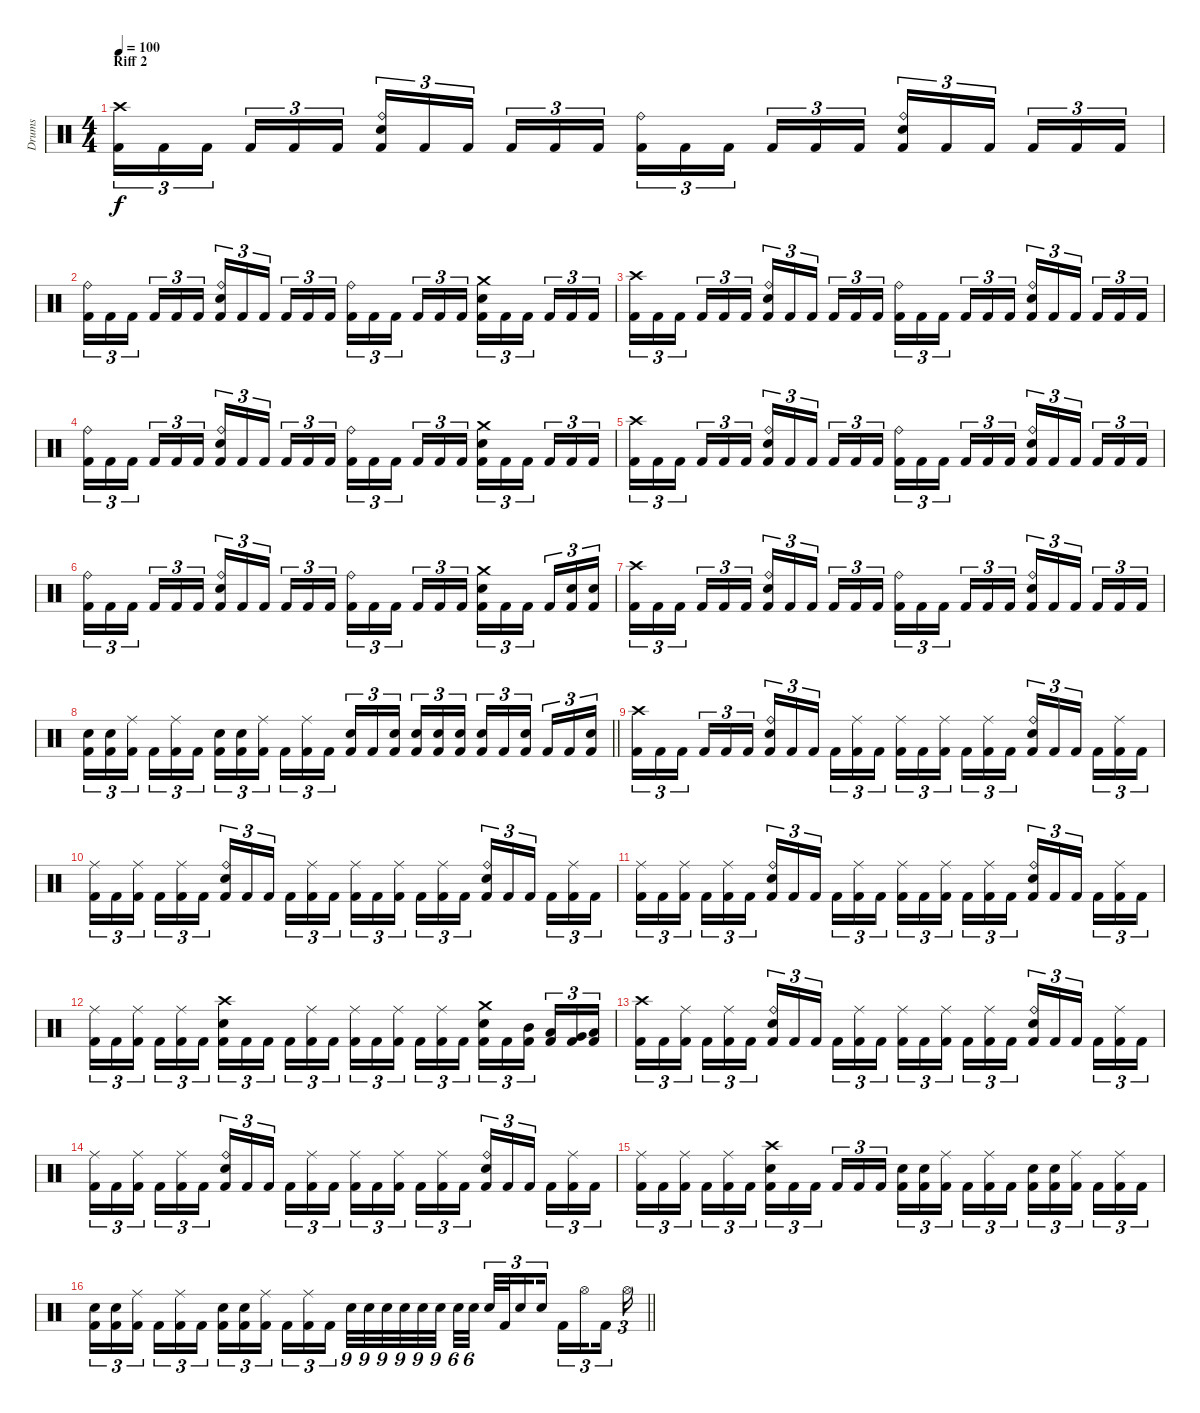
\track ("Drums" "Drums") {instrument percussion}
\staff {score}
\articulation defaults
\ts (4 4)
\section ("" "Riff 2")
\tempo 100
\clef neutral
\ks c
("Crash high (hit)" "Kick (hit) 2").16{tu (3 2) dy f} "Kick (hit) 2".16{tu (3 2)} "Kick (hit) 2".16{tu (3 2) beam splitsecondary} "Kick (hit) 2".16{tu (3 2)} "Kick (hit) 2".16{tu (3 2)} "Kick (hit) 2".16{tu (3 2)} ("Ride (bell)" "Electric Snare (hit)" "Kick (hit) 2").16{tu (3 2)} "Kick (hit) 2".16{tu (3 2)} "Kick (hit) 2".16{tu (3 2) beam splitsecondary} "Kick (hit) 2".16{tu (3 2)} "Kick (hit) 2".16{tu (3 2)} "Kick (hit) 2".16{tu (3 2)} ("Ride (bell)" "Kick (hit) 2").16{tu (3 2)} "Kick (hit) 2".16{tu (3 2)} "Kick (hit) 2".16{tu (3 2) beam splitsecondary} "Kick (hit) 2".16{tu (3 2)} "Kick (hit) 2".16{tu (3 2)} "Kick (hit) 2".16{tu (3 2)} ("Ride (bell)" "Electric Snare (hit)" "Kick (hit) 2").16{tu (3 2)} "Kick (hit) 2".16{tu (3 2)} "Kick (hit) 2".16{tu (3 2) beam splitsecondary} "Kick (hit) 2".16{tu (3 2)} "Kick (hit) 2".16{tu (3 2)} "Kick (hit) 2".16{tu (3 2)} |
("Ride (bell)" "Kick (hit) 2").16{tu (3 2)} "Kick (hit) 2".16{tu (3 2)} "Kick (hit) 2".16{tu (3 2) beam splitsecondary} "Kick (hit) 2".16{tu (3 2)} "Kick (hit) 2".16{tu (3 2)} "Kick (hit) 2".16{tu (3 2)} ("Ride (bell)" "Electric Snare (hit)" "Kick (hit) 2").16{tu (3 2)} "Kick (hit) 2".16{tu (3 2)} "Kick (hit) 2".16{tu (3 2) beam splitsecondary} "Kick (hit) 2".16{tu (3 2)} "Kick (hit) 2".16{tu (3 2)} "Kick (hit) 2".16{tu (3 2)} ("Ride (bell)" "Kick (hit) 2").16{tu (3 2)} "Kick (hit) 2".16{tu (3 2)} "Kick (hit) 2".16{tu (3 2) beam splitsecondary} "Kick (hit) 2".16{tu (3 2)} "Kick (hit) 2".16{tu (3 2)} "Kick (hit) 2".16{tu (3 2)} ("Crash medium (hit)" "Electric Snare (hit)" "Kick (hit) 2").16{tu (3 2)} "Kick (hit) 2".16{tu (3 2)} "Kick (hit) 2".16{tu (3 2) beam splitsecondary} "Kick (hit) 2".16{tu (3 2)} "Kick (hit) 2".16{tu (3 2)} "Kick (hit) 2".16{tu (3 2)} |
("Crash high (hit)" "Kick (hit) 2").16{tu (3 2)} "Kick (hit) 2".16{tu (3 2)} "Kick (hit) 2".16{tu (3 2) beam splitsecondary} "Kick (hit) 2".16{tu (3 2)} "Kick (hit) 2".16{tu (3 2)} "Kick (hit) 2".16{tu (3 2)} ("Ride (bell)" "Electric Snare (hit)" "Kick (hit) 2").16{tu (3 2)} "Kick (hit) 2".16{tu (3 2)} "Kick (hit) 2".16{tu (3 2) beam splitsecondary} "Kick (hit) 2".16{tu (3 2)} "Kick (hit) 2".16{tu (3 2)} "Kick (hit) 2".16{tu (3 2)} ("Ride (bell)" "Kick (hit) 2").16{tu (3 2)} "Kick (hit) 2".16{tu (3 2)} "Kick (hit) 2".16{tu (3 2) beam splitsecondary} "Kick (hit) 2".16{tu (3 2)} "Kick (hit) 2".16{tu (3 2)} "Kick (hit) 2".16{tu (3 2)} ("Ride (bell)" "Electric Snare (hit)" "Kick (hit) 2").16{tu (3 2)} "Kick (hit) 2".16{tu (3 2)} "Kick (hit) 2".16{tu (3 2) beam splitsecondary} "Kick (hit) 2".16{tu (3 2)} "Kick (hit) 2".16{tu (3 2)} "Kick (hit) 2".16{tu (3 2)} |
("Ride (bell)" "Kick (hit) 2").16{tu (3 2)} "Kick (hit) 2".16{tu (3 2)} "Kick (hit) 2".16{tu (3 2) beam splitsecondary} "Kick (hit) 2".16{tu (3 2)} "Kick (hit) 2".16{tu (3 2)} "Kick (hit) 2".16{tu (3 2)} ("Ride (bell)" "Electric Snare (hit)" "Kick (hit) 2").16{tu (3 2)} "Kick (hit) 2".16{tu (3 2)} "Kick (hit) 2".16{tu (3 2) beam splitsecondary} "Kick (hit) 2".16{tu (3 2)} "Kick (hit) 2".16{tu (3 2)} "Kick (hit) 2".16{tu (3 2)} ("Ride (bell)" "Kick (hit) 2").16{tu (3 2)} "Kick (hit) 2".16{tu (3 2)} "Kick (hit) 2".16{tu (3 2) beam splitsecondary} "Kick (hit) 2".16{tu (3 2)} "Kick (hit) 2".16{tu (3 2)} "Kick (hit) 2".16{tu (3 2)} ("Crash medium (hit)" "Electric Snare (hit)" "Kick (hit) 2").16{tu (3 2)} "Kick (hit) 2".16{tu (3 2)} "Kick (hit) 2".16{tu (3 2) beam splitsecondary} "Kick (hit) 2".16{tu (3 2)} "Kick (hit) 2".16{tu (3 2)} "Kick (hit) 2".16{tu (3 2)} |
("Crash high (hit)" "Kick (hit) 2").16{tu (3 2)} "Kick (hit) 2".16{tu (3 2)} "Kick (hit) 2".16{tu (3 2) beam splitsecondary} "Kick (hit) 2".16{tu (3 2)} "Kick (hit) 2".16{tu (3 2)} "Kick (hit) 2".16{tu (3 2)} ("Ride (bell)" "Electric Snare (hit)" "Kick (hit) 2").16{tu (3 2)} "Kick (hit) 2".16{tu (3 2)} "Kick (hit) 2".16{tu (3 2) beam splitsecondary} "Kick (hit) 2".16{tu (3 2)} "Kick (hit) 2".16{tu (3 2)} "Kick (hit) 2".16{tu (3 2)} ("Ride (bell)" "Kick (hit) 2").16{tu (3 2)} "Kick (hit) 2".16{tu (3 2)} "Kick (hit) 2".16{tu (3 2) beam splitsecondary} "Kick (hit) 2".16{tu (3 2)} "Kick (hit) 2".16{tu (3 2)} "Kick (hit) 2".16{tu (3 2)} ("Ride (bell)" "Electric Snare (hit)" "Kick (hit) 2").16{tu (3 2)} "Kick (hit) 2".16{tu (3 2)} "Kick (hit) 2".16{tu (3 2) beam splitsecondary} "Kick (hit) 2".16{tu (3 2)} "Kick (hit) 2".16{tu (3 2)} "Kick (hit) 2".16{tu (3 2)} |
("Ride (bell)" "Kick (hit) 2").16{tu (3 2)} "Kick (hit) 2".16{tu (3 2)} "Kick (hit) 2".16{tu (3 2) beam splitsecondary} "Kick (hit) 2".16{tu (3 2)} "Kick (hit) 2".16{tu (3 2)} "Kick (hit) 2".16{tu (3 2)} ("Ride (bell)" "Electric Snare (hit)" "Kick (hit) 2").16{tu (3 2)} "Kick (hit) 2".16{tu (3 2)} "Kick (hit) 2".16{tu (3 2) beam splitsecondary} "Kick (hit) 2".16{tu (3 2)} "Kick (hit) 2".16{tu (3 2)} "Kick (hit) 2".16{tu (3 2)} ("Ride (bell)" "Kick (hit) 2").16{tu (3 2)} "Kick (hit) 2".16{tu (3 2)} "Kick (hit) 2".16{tu (3 2) beam splitsecondary} "Kick (hit) 2".16{tu (3 2)} "Kick (hit) 2".16{tu (3 2)} "Kick (hit) 2".16{tu (3 2)} ("Crash medium (hit)" "Electric Snare (hit)" "Kick (hit) 2").16{tu (3 2)} "Kick (hit) 2".16{tu (3 2)} "Kick (hit) 2".16{tu (3 2) beam splitsecondary} "Kick (hit) 2".16{tu (3 2)} ("Electric Snare (hit)" "Kick (hit) 2").16{tu (3 2)} ("Electric Snare (hit)" "Kick (hit) 2").16{tu (3 2)} |
("Crash high (hit)" "Kick (hit) 2").16{tu (3 2)} "Kick (hit) 2".16{tu (3 2)} "Kick (hit) 2".16{tu (3 2) beam splitsecondary} "Kick (hit) 2".16{tu (3 2)} "Kick (hit) 2".16{tu (3 2)} "Kick (hit) 2".16{tu (3 2)} ("Ride (bell)" "Electric Snare (hit)" "Kick (hit) 2").16{tu (3 2)} "Kick (hit) 2".16{tu (3 2)} "Kick (hit) 2".16{tu (3 2) beam splitsecondary} "Kick (hit) 2".16{tu (3 2)} "Kick (hit) 2".16{tu (3 2)} "Kick (hit) 2".16{tu (3 2)} ("Ride (bell)" "Kick (hit) 2").16{tu (3 2)} "Kick (hit) 2".16{tu (3 2)} "Kick (hit) 2".16{tu (3 2) beam splitsecondary} "Kick (hit) 2".16{tu (3 2)} "Kick (hit) 2".16{tu (3 2)} "Kick (hit) 2".16{tu (3 2)} ("Ride (bell)" "Electric Snare (hit)" "Kick (hit) 2").16{tu (3 2)} "Kick (hit) 2".16{tu (3 2)} "Kick (hit) 2".16{tu (3 2) beam splitsecondary} "Kick (hit) 2".16{tu (3 2)} "Kick (hit) 2".16{tu (3 2)} "Kick (hit) 2".16{tu (3 2)} |
\barLineRight lightlight
("Electric Snare (hit)" "Kick (hit) 2").16{tu (3 2)} ("Electric Snare (hit)" "Kick (hit) 2").16{tu (3 2)} ("Ride (middle)" "Kick (hit) 2").16{tu (3 2) beam splitsecondary} "Kick (hit) 2".16{tu (3 2)} ("Ride (middle)" "Kick (hit) 2").16{tu (3 2)} "Kick (hit) 2".16{tu (3 2)} ("Electric Snare (hit)" "Kick (hit) 2").16{tu (3 2)} ("Electric Snare (hit)" "Kick (hit) 2").16{tu (3 2)} ("Ride (middle)" "Kick (hit) 2").16{tu (3 2) beam splitsecondary} "Kick (hit) 2".16{tu (3 2)} ("Ride (middle)" "Kick (hit) 2").16{tu (3 2)} "Kick (hit) 2".16{tu (3 2)} ("Electric Snare (hit)" "Kick (hit) 2").16{tu (3 2)} "Kick (hit) 2".16{tu (3 2)} ("Electric Snare (hit)" "Kick (hit) 2").16{tu (3 2) beam splitsecondary} ("Electric Snare (hit)" "Kick (hit) 2").16{tu (3 2)} ("Electric Snare (hit)" "Kick (hit) 2").16{tu (3 2)} ("Electric Snare (hit)" "Kick (hit) 2").16{tu (3 2)} ("Electric Snare (hit)" "Kick (hit) 2").16{tu (3 2)} "Kick (hit) 2".16{tu (3 2)} ("Electric Snare (hit)" "Kick (hit) 2").16{tu (3 2) beam splitsecondary} "Kick (hit) 2".16{tu (3 2)} "Kick (hit) 2".16{tu (3 2)} ("Electric Snare (hit)" "Kick (hit) 2").16{tu (3 2)} |
("Crash high (hit)" "Kick (hit) 2").16{tu (3 2)} "Kick (hit) 2".16{tu (3 2)} "Kick (hit) 2".16{tu (3 2) beam splitsecondary} "Kick (hit) 2".16{tu (3 2)} "Kick (hit) 2".16{tu (3 2)} "Kick (hit) 2".16{tu (3 2)} ("Ride (bell)" "Electric Snare (hit)" "Kick (hit) 2").16{tu (3 2)} "Kick (hit) 2".16{tu (3 2)} "Kick (hit) 2".16{tu (3 2) beam splitsecondary} "Kick (hit) 2".16{tu (3 2)} ("Ride (middle)" "Kick (hit) 2").16{tu (3 2)} "Kick (hit) 2".16{tu (3 2)} ("Ride (middle)" "Kick (hit) 2").16{tu (3 2)} "Kick (hit) 2".16{tu (3 2)} ("Ride (middle)" "Kick (hit) 2").16{tu (3 2) beam splitsecondary} "Kick (hit) 2".16{tu (3 2)} ("Ride (middle)" "Kick (hit) 2").16{tu (3 2)} "Kick (hit) 2".16{tu (3 2)} ("Ride (bell)" "Electric Snare (hit)" "Kick (hit) 2").16{tu (3 2)} "Kick (hit) 2".16{tu (3 2)} "Kick (hit) 2".16{tu (3 2) beam splitsecondary} "Kick (hit) 2".16{tu (3 2)} ("Ride (middle)" "Kick (hit) 2").16{tu (3 2)} "Kick (hit) 2".16{tu (3 2)} |
("Ride (middle)" "Kick (hit) 2").16{tu (3 2)} "Kick (hit) 2".16{tu (3 2)} ("Ride (middle)" "Kick (hit) 2").16{tu (3 2) beam splitsecondary} "Kick (hit) 2".16{tu (3 2)} ("Ride (middle)" "Kick (hit) 2").16{tu (3 2)} "Kick (hit) 2".16{tu (3 2)} ("Ride (bell)" "Electric Snare (hit)" "Kick (hit) 2").16{tu (3 2)} "Kick (hit) 2".16{tu (3 2)} "Kick (hit) 2".16{tu (3 2) beam splitsecondary} "Kick (hit) 2".16{tu (3 2)} ("Ride (middle)" "Kick (hit) 2").16{tu (3 2)} "Kick (hit) 2".16{tu (3 2)} ("Ride (middle)" "Kick (hit) 2").16{tu (3 2)} "Kick (hit) 2".16{tu (3 2)} ("Ride (middle)" "Kick (hit) 2").16{tu (3 2) beam splitsecondary} "Kick (hit) 2".16{tu (3 2)} ("Ride (middle)" "Kick (hit) 2").16{tu (3 2)} "Kick (hit) 2".16{tu (3 2)} ("Ride (bell)" "Electric Snare (hit)" "Kick (hit) 2").16{tu (3 2)} "Kick (hit) 2".16{tu (3 2)} "Kick (hit) 2".16{tu (3 2) beam splitsecondary} "Kick (hit) 2".16{tu (3 2)} ("Ride (middle)" "Kick (hit) 2").16{tu (3 2)} "Kick (hit) 2".16{tu (3 2)} |
("Ride (middle)" "Kick (hit) 2").16{tu (3 2)} "Kick (hit) 2".16{tu (3 2)} ("Ride (middle)" "Kick (hit) 2").16{tu (3 2) beam splitsecondary} "Kick (hit) 2".16{tu (3 2)} ("Ride (middle)" "Kick (hit) 2").16{tu (3 2)} "Kick (hit) 2".16{tu (3 2)} ("Ride (bell)" "Electric Snare (hit)" "Kick (hit) 2").16{tu (3 2)} "Kick (hit) 2".16{tu (3 2)} "Kick (hit) 2".16{tu (3 2) beam splitsecondary} "Kick (hit) 2".16{tu (3 2)} ("Ride (middle)" "Kick (hit) 2").16{tu (3 2)} "Kick (hit) 2".16{tu (3 2)} ("Ride (middle)" "Kick (hit) 2").16{tu (3 2)} "Kick (hit) 2".16{tu (3 2)} ("Ride (middle)" "Kick (hit) 2").16{tu (3 2) beam splitsecondary} "Kick (hit) 2".16{tu (3 2)} ("Ride (middle)" "Kick (hit) 2").16{tu (3 2)} "Kick (hit) 2".16{tu (3 2)} ("Ride (bell)" "Electric Snare (hit)" "Kick (hit) 2").16{tu (3 2)} "Kick (hit) 2".16{tu (3 2)} "Kick (hit) 2".16{tu (3 2) beam splitsecondary} "Kick (hit) 2".16{tu (3 2)} ("Ride (middle)" "Kick (hit) 2").16{tu (3 2)} "Kick (hit) 2".16{tu (3 2)} |
("Ride (middle)" "Kick (hit) 2").16{tu (3 2)} "Kick (hit) 2".16{tu (3 2)} ("Ride (middle)" "Kick (hit) 2").16{tu (3 2) beam splitsecondary} "Kick (hit) 2".16{tu (3 2)} ("Ride (middle)" "Kick (hit) 2").16{tu (3 2)} "Kick (hit) 2".16{tu (3 2)} ("Crash high (hit)" "Electric Snare (hit)" "Kick (hit) 2").16{tu (3 2)} "Kick (hit) 2".16{tu (3 2)} "Kick (hit) 2".16{tu (3 2) beam splitsecondary} "Kick (hit) 2".16{tu (3 2)} ("Ride (middle)" "Kick (hit) 2").16{tu (3 2)} "Kick (hit) 2".16{tu (3 2)} ("Ride (middle)" "Kick (hit) 2").16{tu (3 2)} "Kick (hit) 2".16{tu (3 2)} ("Ride (middle)" "Kick (hit) 2").16{tu (3 2) beam splitsecondary} "Kick (hit) 2".16{tu (3 2)} ("Ride (middle)" "Kick (hit) 2").16{tu (3 2)} "Kick (hit) 2".16{tu (3 2)} ("Crash medium (hit)" "Electric Snare (hit)" "Kick (hit) 2").16{tu (3 2)} "Kick (hit) 2".16{tu (3 2)} ("Mid Tom (hit)" "Kick (hit) 2").16{tu (3 2) beam splitsecondary} ("Low Tom (hit)" "Kick (hit) 2").16{tu (3 2)} ("Very Low Tom (hit)" "Kick (hit) 2").16{tu (3 2)} ("Low Floor Tom (hit)" "Kick (hit) 2").16{tu (3 2)} |
("Crash high (hit)" "Kick (hit) 2").16{tu (3 2)} "Kick (hit) 2".16{tu (3 2)} ("Ride (middle)" "Kick (hit) 2").16{tu (3 2) beam splitsecondary} "Kick (hit) 2".16{tu (3 2)} ("Ride (middle)" "Kick (hit) 2").16{tu (3 2)} "Kick (hit) 2".16{tu (3 2)} ("Ride (bell)" "Electric Snare (hit)" "Kick (hit) 2").16{tu (3 2)} "Kick (hit) 2".16{tu (3 2)} "Kick (hit) 2".16{tu (3 2) beam splitsecondary} "Kick (hit) 2".16{tu (3 2)} ("Ride (middle)" "Kick (hit) 2").16{tu (3 2)} "Kick (hit) 2".16{tu (3 2)} ("Ride (middle)" "Kick (hit) 2").16{tu (3 2)} "Kick (hit) 2".16{tu (3 2)} ("Ride (middle)" "Kick (hit) 2").16{tu (3 2) beam splitsecondary} "Kick (hit) 2".16{tu (3 2)} ("Ride (middle)" "Kick (hit) 2").16{tu (3 2)} "Kick (hit) 2".16{tu (3 2)} ("Ride (bell)" "Electric Snare (hit)" "Kick (hit) 2").16{tu (3 2)} "Kick (hit) 2".16{tu (3 2)} "Kick (hit) 2".16{tu (3 2) beam splitsecondary} "Kick (hit) 2".16{tu (3 2)} ("Ride (middle)" "Kick (hit) 2").16{tu (3 2)} "Kick (hit) 2".16{tu (3 2)} |
("Ride (middle)" "Kick (hit) 2").16{tu (3 2)} "Kick (hit) 2".16{tu (3 2)} ("Ride (middle)" "Kick (hit) 2").16{tu (3 2) beam splitsecondary} "Kick (hit) 2".16{tu (3 2)} ("Ride (middle)" "Kick (hit) 2").16{tu (3 2)} "Kick (hit) 2".16{tu (3 2)} ("Ride (bell)" "Electric Snare (hit)" "Kick (hit) 2").16{tu (3 2)} "Kick (hit) 2".16{tu (3 2)} "Kick (hit) 2".16{tu (3 2) beam splitsecondary} "Kick (hit) 2".16{tu (3 2)} ("Ride (middle)" "Kick (hit) 2").16{tu (3 2)} "Kick (hit) 2".16{tu (3 2)} ("Ride (middle)" "Kick (hit) 2").16{tu (3 2)} "Kick (hit) 2".16{tu (3 2)} ("Ride (middle)" "Kick (hit) 2").16{tu (3 2) beam splitsecondary} "Kick (hit) 2".16{tu (3 2)} ("Ride (middle)" "Kick (hit) 2").16{tu (3 2)} "Kick (hit) 2".16{tu (3 2)} ("Ride (bell)" "Electric Snare (hit)" "Kick (hit) 2").16{tu (3 2)} "Kick (hit) 2".16{tu (3 2)} "Kick (hit) 2".16{tu (3 2) beam splitsecondary} "Kick (hit) 2".16{tu (3 2)} ("Ride (middle)" "Kick (hit) 2").16{tu (3 2)} "Kick (hit) 2".16{tu (3 2)} |
("Ride (middle)" "Kick (hit) 2").16{tu (3 2)} "Kick (hit) 2".16{tu (3 2)} ("Ride (middle)" "Kick (hit) 2").16{tu (3 2) beam splitsecondary} "Kick (hit) 2".16{tu (3 2)} ("Ride (middle)" "Kick (hit) 2").16{tu (3 2)} "Kick (hit) 2".16{tu (3 2)} ("Crash high (hit)" "Electric Snare (hit)" "Kick (hit) 2").16{tu (3 2)} "Kick (hit) 2".16{tu (3 2)} "Kick (hit) 2".16{tu (3 2) beam splitsecondary} "Kick (hit) 2".16{tu (3 2)} "Kick (hit) 2".16{tu (3 2)} "Kick (hit) 2".16{tu (3 2)} ("Electric Snare (hit)" "Kick (hit) 2").16{tu (3 2)} ("Electric Snare (hit)" "Kick (hit) 2").16{tu (3 2)} ("Ride (middle)" "Kick (hit) 2").16{tu (3 2) beam splitsecondary} "Kick (hit) 2".16{tu (3 2)} ("Ride (middle)" "Kick (hit) 2").16{tu (3 2)} "Kick (hit) 2".16{tu (3 2)} ("Electric Snare (hit)" "Kick (hit) 2").16{tu (3 2)} ("Electric Snare (hit)" "Kick (hit) 2").16{tu (3 2)} ("Ride (middle)" "Kick (hit) 2").16{tu (3 2) beam splitsecondary} "Kick (hit) 2".16{tu (3 2)} ("Ride (middle)" "Kick (hit) 2").16{tu (3 2)} "Kick (hit) 2".16{tu (3 2)} |
\barLineRight lightlight
("Electric Snare (hit)" "Kick (hit) 2").16{tu (3 2)} ("Electric Snare (hit)" "Kick (hit) 2").16{tu (3 2)} ("Ride (middle)" "Kick (hit) 2").16{tu (3 2) beam splitsecondary} "Kick (hit) 2".16{tu (3 2)} ("Ride (middle)" "Kick (hit) 2").16{tu (3 2)} "Kick (hit) 2".16{tu (3 2)} ("Electric Snare (hit)" "Kick (hit) 2").16{tu (3 2)} ("Electric Snare (hit)" "Kick (hit) 2").16{tu (3 2)} ("Ride (middle)" "Kick (hit) 2").16{tu (3 2) beam splitsecondary} "Kick (hit) 2".16{tu (3 2)} ("Ride (middle)" "Kick (hit) 2").16{tu (3 2)} "Kick (hit) 2".16{tu (3 2)} "Electric Snare (hit)".32{tu (9 8)} "Electric Snare (hit)".32{tu (9 8)} "Electric Snare (hit)".32{tu (9 8)} "Electric Snare (hit)".32{tu (9 8)} "Electric Snare (hit)".32{tu (9 8)} "Electric Snare (hit)".32{tu (9 8)} "Electric Snare (hit)".32{tu (6 4)} "Electric Snare (hit)".32{tu (6 4)} "Electric Snare (hit)".32{tu (3 2)} "Kick (hit) 2".32{tu (3 2)} "Electric Snare (hit)".16{tu (3 2) beam splitsecondary} "Electric Snare (hit)".16{tu (3 2)} "Kick (hit) 2".16{tu (3 2)} "Hi-Hat (open)".16{tu (3 2) beam splitsecondary} "Kick (hit) 2".16{tu (3 2)} "Hi-Hat (open)".16{tu (3 2)}
